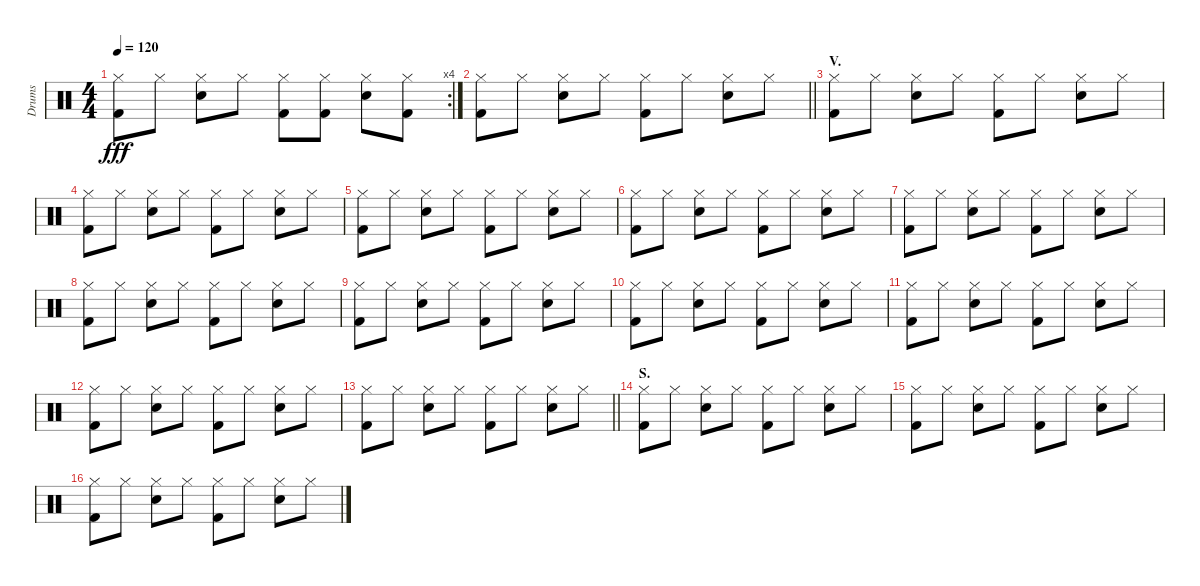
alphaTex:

\track ("Drums" "Drums") {instrument percussion}
\staff {score}
\articulation defaults
\rc 4
\ts (4 4)
\tempo 120
\clef neutral
\ks c
("Hi-Hat (closed)" "Kick (hit) 2").8{dy fff} "Hi-Hat (closed)".8 ("Hi-Hat (closed)" "Electric Snare (hit)").8 "Hi-Hat (closed)".8 ("Hi-Hat (closed)" "Kick (hit) 2").8 ("Hi-Hat (closed)" "Kick (hit) 2").8 ("Hi-Hat (closed)" "Electric Snare (hit)").8 ("Hi-Hat (closed)" "Kick (hit) 2").8 |
\barLineRight lightlight
("Hi-Hat (closed)" "Kick (hit) 2").8 "Hi-Hat (closed)".8 ("Hi-Hat (closed)" "Electric Snare (hit)").8 "Hi-Hat (closed)".8 ("Hi-Hat (closed)" "Kick (hit) 2").8 "Hi-Hat (closed)".8 ("Hi-Hat (closed)" "Electric Snare (hit)").8 "Hi-Hat (closed)".8 |
\section ("" "V.")
("Hi-Hat (closed)" "Kick (hit) 2").8 "Hi-Hat (closed)".8 ("Hi-Hat (closed)" "Electric Snare (hit)").8 "Hi-Hat (closed)".8 ("Hi-Hat (closed)" "Kick (hit) 2").8 "Hi-Hat (closed)".8 ("Hi-Hat (closed)" "Electric Snare (hit)").8 "Hi-Hat (closed)".8 |
("Hi-Hat (closed)" "Kick (hit) 2").8 "Hi-Hat (closed)".8 ("Hi-Hat (closed)" "Electric Snare (hit)").8 "Hi-Hat (closed)".8 ("Hi-Hat (closed)" "Kick (hit) 2").8 "Hi-Hat (closed)".8 ("Hi-Hat (closed)" "Electric Snare (hit)").8 "Hi-Hat (closed)".8 |
("Hi-Hat (closed)" "Kick (hit) 2").8 "Hi-Hat (closed)".8 ("Hi-Hat (closed)" "Electric Snare (hit)").8 "Hi-Hat (closed)".8 ("Hi-Hat (closed)" "Kick (hit) 2").8 "Hi-Hat (closed)".8 ("Hi-Hat (closed)" "Electric Snare (hit)").8 "Hi-Hat (closed)".8 |
("Hi-Hat (closed)" "Kick (hit) 2").8 "Hi-Hat (closed)".8 ("Hi-Hat (closed)" "Electric Snare (hit)").8 "Hi-Hat (closed)".8 ("Hi-Hat (closed)" "Kick (hit) 2").8 "Hi-Hat (closed)".8 ("Hi-Hat (closed)" "Electric Snare (hit)").8 "Hi-Hat (closed)".8 |
("Hi-Hat (closed)" "Kick (hit) 2").8 "Hi-Hat (closed)".8 ("Hi-Hat (closed)" "Electric Snare (hit)").8 "Hi-Hat (closed)".8 ("Hi-Hat (closed)" "Kick (hit) 2").8 "Hi-Hat (closed)".8 ("Hi-Hat (closed)" "Electric Snare (hit)").8 "Hi-Hat (closed)".8 |
("Hi-Hat (closed)" "Kick (hit) 2").8 "Hi-Hat (closed)".8 ("Hi-Hat (closed)" "Electric Snare (hit)").8 "Hi-Hat (closed)".8 ("Hi-Hat (closed)" "Kick (hit) 2").8 "Hi-Hat (closed)".8 ("Hi-Hat (closed)" "Electric Snare (hit)").8 "Hi-Hat (closed)".8 |
("Hi-Hat (closed)" "Kick (hit) 2").8 "Hi-Hat (closed)".8 ("Hi-Hat (closed)" "Electric Snare (hit)").8 "Hi-Hat (closed)".8 ("Hi-Hat (closed)" "Kick (hit) 2").8 "Hi-Hat (closed)".8 ("Hi-Hat (closed)" "Electric Snare (hit)").8 "Hi-Hat (closed)".8 |
("Hi-Hat (closed)" "Kick (hit) 2").8 "Hi-Hat (closed)".8 ("Hi-Hat (closed)" "Electric Snare (hit)").8 "Hi-Hat (closed)".8 ("Hi-Hat (closed)" "Kick (hit) 2").8 "Hi-Hat (closed)".8 ("Hi-Hat (closed)" "Electric Snare (hit)").8 "Hi-Hat (closed)".8 |
("Hi-Hat (closed)" "Kick (hit) 2").8 "Hi-Hat (closed)".8 ("Hi-Hat (closed)" "Electric Snare (hit)").8 "Hi-Hat (closed)".8 ("Hi-Hat (closed)" "Kick (hit) 2").8 "Hi-Hat (closed)".8 ("Hi-Hat (closed)" "Electric Snare (hit)").8 "Hi-Hat (closed)".8 |
("Hi-Hat (closed)" "Kick (hit) 2").8 "Hi-Hat (closed)".8 ("Hi-Hat (closed)" "Electric Snare (hit)").8 "Hi-Hat (closed)".8 ("Hi-Hat (closed)" "Kick (hit) 2").8 "Hi-Hat (closed)".8 ("Hi-Hat (closed)" "Electric Snare (hit)").8 "Hi-Hat (closed)".8 |
\barLineRight lightlight
("Hi-Hat (closed)" "Kick (hit) 2").8 "Hi-Hat (closed)".8 ("Hi-Hat (closed)" "Electric Snare (hit)").8 "Hi-Hat (closed)".8 ("Hi-Hat (closed)" "Kick (hit) 2").8 "Hi-Hat (closed)".8 ("Hi-Hat (closed)" "Electric Snare (hit)").8 "Hi-Hat (closed)".8 |
\section ("" "S.")
("Hi-Hat (closed)" "Kick (hit) 2").8 "Hi-Hat (closed)".8 ("Hi-Hat (closed)" "Electric Snare (hit)").8 "Hi-Hat (closed)".8 ("Hi-Hat (closed)" "Kick (hit) 2").8 "Hi-Hat (closed)".8 ("Hi-Hat (closed)" "Electric Snare (hit)").8 "Hi-Hat (closed)".8 |
("Hi-Hat (closed)" "Kick (hit) 2").8 "Hi-Hat (closed)".8 ("Hi-Hat (closed)" "Electric Snare (hit)").8 "Hi-Hat (closed)".8 ("Hi-Hat (closed)" "Kick (hit) 2").8 "Hi-Hat (closed)".8 ("Hi-Hat (closed)" "Electric Snare (hit)").8 "Hi-Hat (closed)".8 |
("Hi-Hat (closed)" "Kick (hit) 2").8 "Hi-Hat (closed)".8 ("Hi-Hat (closed)" "Electric Snare (hit)").8 "Hi-Hat (closed)".8 ("Hi-Hat (closed)" "Kick (hit) 2").8 "Hi-Hat (closed)".8 ("Hi-Hat (closed)" "Electric Snare (hit)").8 "Hi-Hat (closed)".8
